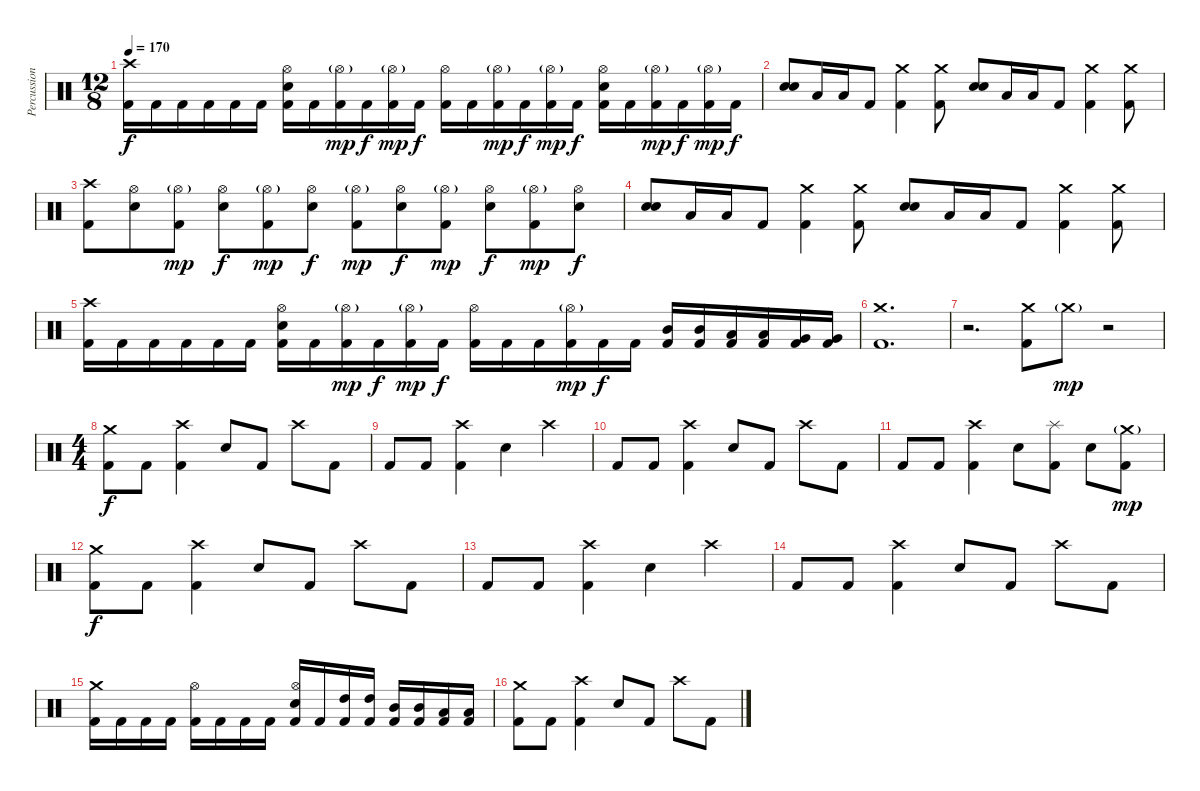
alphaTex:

\track ("Percussion" "Percussion") {instrument percussion}
\staff {score}
\articulation defaults
\ts (12 8)
\tempo 170
\clef neutral
\ks c
("Crash high (hit)" "Kick (hit) 2").16{dy f} "Kick (hit) 2".16 "Kick (hit) 2".16 "Kick (hit) 2".16 "Kick (hit) 2".16 "Kick (hit) 2".16 ("Hi-Hat (open)" "Electric Snare (hit)" "Kick (hit) 2").16 "Kick (hit) 2".16 ("Hi-Hat (open)"{g} "Kick (hit) 2").16{dy mp} "Kick (hit) 2".16{dy f} ("Hi-Hat (open)"{g} "Kick (hit) 2").16{dy mp} "Kick (hit) 2".16{dy f} ("Hi-Hat (open)" "Kick (hit) 2").16 "Kick (hit) 2".16 ("Hi-Hat (open)"{g} "Kick (hit) 2").16{dy mp} "Kick (hit) 2".16{dy f} ("Hi-Hat (open)"{g} "Kick (hit) 2").16{dy mp} "Kick (hit) 2".16{dy f} ("Hi-Hat (open)" "Electric Snare (hit)" "Kick (hit) 2").16 "Kick (hit) 2".16 ("Hi-Hat (open)"{g} "Kick (hit) 2").16{dy mp} "Kick (hit) 2".16{dy f} ("Hi-Hat (open)"{g} "Kick (hit) 2").16{dy mp} "Kick (hit) 2".16{dy f} |
("Electric Snare (hit)" "Electric Snare (hit)").8{bd 240} "Low Floor Tom (hit)".16 "Low Floor Tom (hit)".16 "Kick (hit) 2".8 ("Crash medium (hit)" "Kick (hit) 2").4 ("Crash medium (hit)" "Kick (hit) 2").8 ("Electric Snare (hit)" "Electric Snare (hit)").8{bd 240} "Low Floor Tom (hit)".16 "Low Floor Tom (hit)".16 "Kick (hit) 2".8 ("Crash medium (hit)" "Kick (hit) 2").4 ("Crash medium (hit)" "Kick (hit) 2").8 |
("Crash high (hit)" "Kick (hit) 2").8 ("Hi-Hat (open)" "Electric Snare (hit)").8 ("Hi-Hat (open)"{g} "Kick (hit) 2").8{dy mp} ("Hi-Hat (open)" "Electric Snare (hit)").8{dy f} ("Hi-Hat (open)"{g} "Kick (hit) 2").8{dy mp} ("Hi-Hat (open)" "Electric Snare (hit)").8{dy f} ("Hi-Hat (open)"{g} "Kick (hit) 2").8{dy mp} ("Hi-Hat (open)" "Electric Snare (hit)").8{dy f} ("Hi-Hat (open)"{g} "Kick (hit) 2").8{dy mp} ("Hi-Hat (open)" "Electric Snare (hit)").8{dy f} ("Hi-Hat (open)"{g} "Kick (hit) 2").8{dy mp} ("Hi-Hat (open)" "Electric Snare (hit)").8{dy f} |
("Electric Snare (hit)" "Electric Snare (hit)").8{bd 240} "Low Floor Tom (hit)".16 "Low Floor Tom (hit)".16 "Kick (hit) 2".8 ("Crash medium (hit)" "Kick (hit) 2").4 ("Crash medium (hit)" "Kick (hit) 2").8 ("Electric Snare (hit)" "Electric Snare (hit)").8{bd 240} "Low Floor Tom (hit)".16 "Low Floor Tom (hit)".16 "Kick (hit) 2".8 ("Crash medium (hit)" "Kick (hit) 2").4 ("Crash medium (hit)" "Kick (hit) 2").8 |
("Crash high (hit)" "Kick (hit) 2").16 "Kick (hit) 2".16 "Kick (hit) 2".16 "Kick (hit) 2".16 "Kick (hit) 2".16 "Kick (hit) 2".16 ("Hi-Hat (open)" "Electric Snare (hit)" "Kick (hit) 2").16 "Kick (hit) 2".16 ("Hi-Hat (open)"{g} "Kick (hit) 2").16{dy mp} "Kick (hit) 2".16{dy f} ("Hi-Hat (open)"{g} "Kick (hit) 2").16{dy mp} "Kick (hit) 2".16{dy f} ("Hi-Hat (open)" "Kick (hit) 2").16 "Kick (hit) 2".16 "Kick (hit) 2".16 ("Hi-Hat (open)"{g} "Kick (hit) 2").16{dy mp} "Kick (hit) 2".16{dy f} "Kick (hit) 2".16 ("Mid Tom (hit)" "Kick (hit) 2").16 ("Mid Tom (hit)" "Kick (hit) 2").16 ("Low Tom (hit)" "Kick (hit) 2").16 ("Low Tom (hit)" "Kick (hit) 2").16 ("Very Low Tom (hit)" "Kick (hit) 2").16 ("Very Low Tom (hit)" "Kick (hit) 2").16 |
("Crash medium (hit)" "Kick (hit) 2").1{d} |
r.2{d} ("Crash medium (hit)" "Kick (hit) 2").8 "Crash medium (hit)"{g}.8{dy mp} r.2 |
\ts (4 4)
("Crash medium (hit)" "Kick (hit) 2").8{dy f} "Kick (hit) 2".8 ("Crash high (hit)" "Kick (hit) 2").4 "Electric Snare (hit)".8 "Kick (hit) 2".8 "Crash high (hit)".8 "Kick (hit) 2".8 |
"Kick (hit) 2".8 "Kick (hit) 2".8 ("Crash high (hit)" "Kick (hit) 2").4 "Electric Snare (hit)".4 "Crash high (hit)".4 |
"Kick (hit) 2".8 "Kick (hit) 2".8 ("Crash high (hit)" "Kick (hit) 2").4 "Electric Snare (hit)".8 "Kick (hit) 2".8 "Crash high (hit)".8 "Kick (hit) 2".8 |
"Kick (hit) 2".8 "Kick (hit) 2".8 ("Crash high (hit)" "Kick (hit) 2").4 "Electric Snare (hit)".8 ("Splash (hit)" "Kick (hit) 2").8 "Electric Snare (hit)".8 ("Crash medium (hit)"{g} "Kick (hit) 2").8{dy mp} |
("Crash medium (hit)" "Kick (hit) 2").8{dy f} "Kick (hit) 2".8 ("Crash high (hit)" "Kick (hit) 2").4 "Electric Snare (hit)".8 "Kick (hit) 2".8 "Crash high (hit)".8 "Kick (hit) 2".8 |
"Kick (hit) 2".8 "Kick (hit) 2".8 ("Crash high (hit)" "Kick (hit) 2").4 "Electric Snare (hit)".4 "Crash high (hit)".4 |
"Kick (hit) 2".8 "Kick (hit) 2".8 ("Crash high (hit)" "Kick (hit) 2").4 "Electric Snare (hit)".8 "Kick (hit) 2".8 "Crash high (hit)".8 "Kick (hit) 2".8 |
("Crash medium (hit)" "Kick (hit) 2").16 "Kick (hit) 2".16 "Kick (hit) 2".16 "Kick (hit) 2".16 ("Hi-Hat (open)" "Kick (hit) 2").16 "Kick (hit) 2".16 "Kick (hit) 2".16 "Kick (hit) 2".16 ("Hi-Hat (open)" "Electric Snare (hit)" "Kick (hit) 2").16 "Kick (hit) 2".16 ("High Tom (hit)" "Kick (hit) 2").16 ("High Tom (hit)" "Kick (hit) 2").16 ("Mid Tom (hit)" "Kick (hit) 2").16 ("Mid Tom (hit)" "Kick (hit) 2").16 ("Low Tom (hit)" "Kick (hit) 2").16 ("Low Tom (hit)" "Kick (hit) 2").16 |
("Crash medium (hit)" "Kick (hit) 2").8 "Kick (hit) 2".8 ("Crash high (hit)" "Kick (hit) 2").4 "Electric Snare (hit)".8 "Kick (hit) 2".8 "Crash high (hit)".8 "Kick (hit) 2".8
